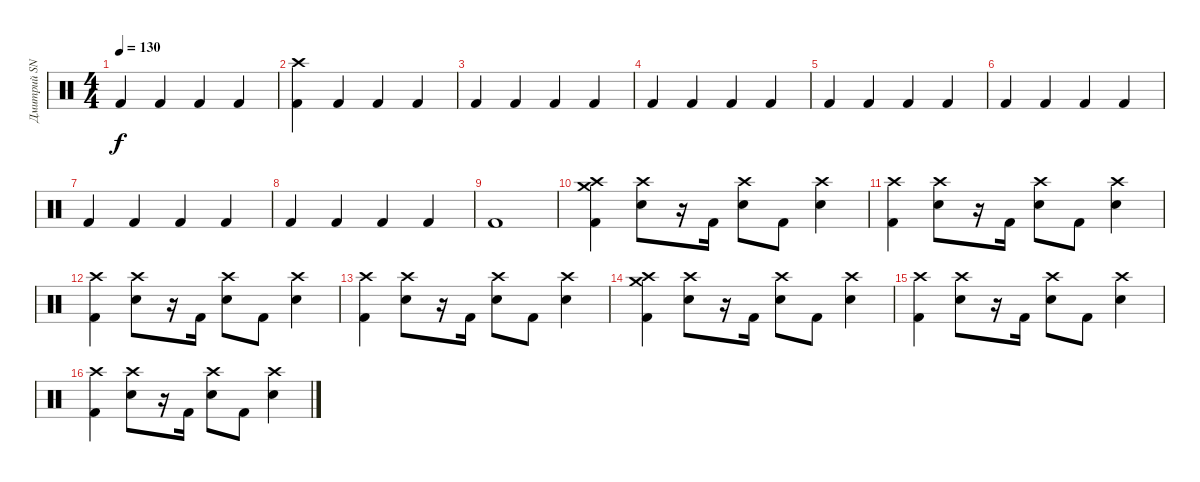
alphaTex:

\track ("Дмитрий SNAKE Хакимов" "Дмитрий SN") {instrument percussion}
\staff {score}
\articulation defaults
\ts (4 4)
\tempo 130
\clef neutral
\ks c "Kick (hit) 2".4{dy f} "Kick (hit) 2".4 "Kick (hit) 2".4 "Kick (hit) 2".4
|
("Crash high (hit)" "Kick (hit) 2").4 "Kick (hit) 2".4 "Kick (hit) 2".4 "Kick (hit) 2".4 |
"Kick (hit) 2".4 "Kick (hit) 2".4 "Kick (hit) 2".4 "Kick (hit) 2".4 |
"Kick (hit) 2".4 "Kick (hit) 2".4 "Kick (hit) 2".4 "Kick (hit) 2".4 |
"Kick (hit) 2".4 "Kick (hit) 2".4 "Kick (hit) 2".4 "Kick (hit) 2".4 |
"Kick (hit) 2".4 "Kick (hit) 2".4 "Kick (hit) 2".4 "Kick (hit) 2".4 |
"Kick (hit) 2".4 "Kick (hit) 2".4 "Kick (hit) 2".4 "Kick (hit) 2".4 |
"Kick (hit) 2".4 "Kick (hit) 2".4 "Kick (hit) 2".4 "Kick (hit) 2".4 |
"Kick (hit) 2".1 |
("Crash high (hit)" "Crash medium (hit)" "Kick (hit) 2").4 ("Crash high (hit)" "Snare (hit) 2").8 r.16 "Kick (hit) 2".16 ("Crash high (hit)" "Snare (hit) 2").8 "Kick (hit) 2".8 ("Crash high (hit)" "Snare (hit) 2").4 |
("Crash high (hit)" "Kick (hit) 2").4 ("Crash high (hit)" "Snare (hit) 2").8 r.16 "Kick (hit) 2".16 ("Crash high (hit)" "Snare (hit) 2").8 "Kick (hit) 2".8 ("Crash high (hit)" "Snare (hit) 2").4 |
("Crash high (hit)" "Kick (hit) 2").4 ("Crash high (hit)" "Snare (hit) 2").8 r.16 "Kick (hit) 2".16 ("Crash high (hit)" "Snare (hit) 2").8 "Kick (hit) 2".8 ("Crash high (hit)" "Snare (hit) 2").4 |
("Crash high (hit)" "Kick (hit) 2").4 ("Crash high (hit)" "Snare (hit) 2").8 r.16 "Kick (hit) 2".16 ("Crash high (hit)" "Snare (hit) 2").8 "Kick (hit) 2".8 ("Crash high (hit)" "Snare (hit) 2").4 |
("Crash high (hit)" "Crash medium (hit)" "Kick (hit) 2").4 ("Crash high (hit)" "Snare (hit) 2").8 r.16 "Kick (hit) 2".16 ("Crash high (hit)" "Snare (hit) 2").8 "Kick (hit) 2".8 ("Crash high (hit)" "Snare (hit) 2").4 |
("Crash high (hit)" "Kick (hit) 2").4 ("Crash high (hit)" "Snare (hit) 2").8 r.16 "Kick (hit) 2".16 ("Crash high (hit)" "Snare (hit) 2").8 "Kick (hit) 2".8 ("Crash high (hit)" "Snare (hit) 2").4 |
("Crash high (hit)" "Kick (hit) 2").4 ("Crash high (hit)" "Snare (hit) 2").8 r.16 "Kick (hit) 2".16 ("Crash high (hit)" "Snare (hit) 2").8 "Kick (hit) 2".8 ("Crash high (hit)" "Snare (hit) 2").4
